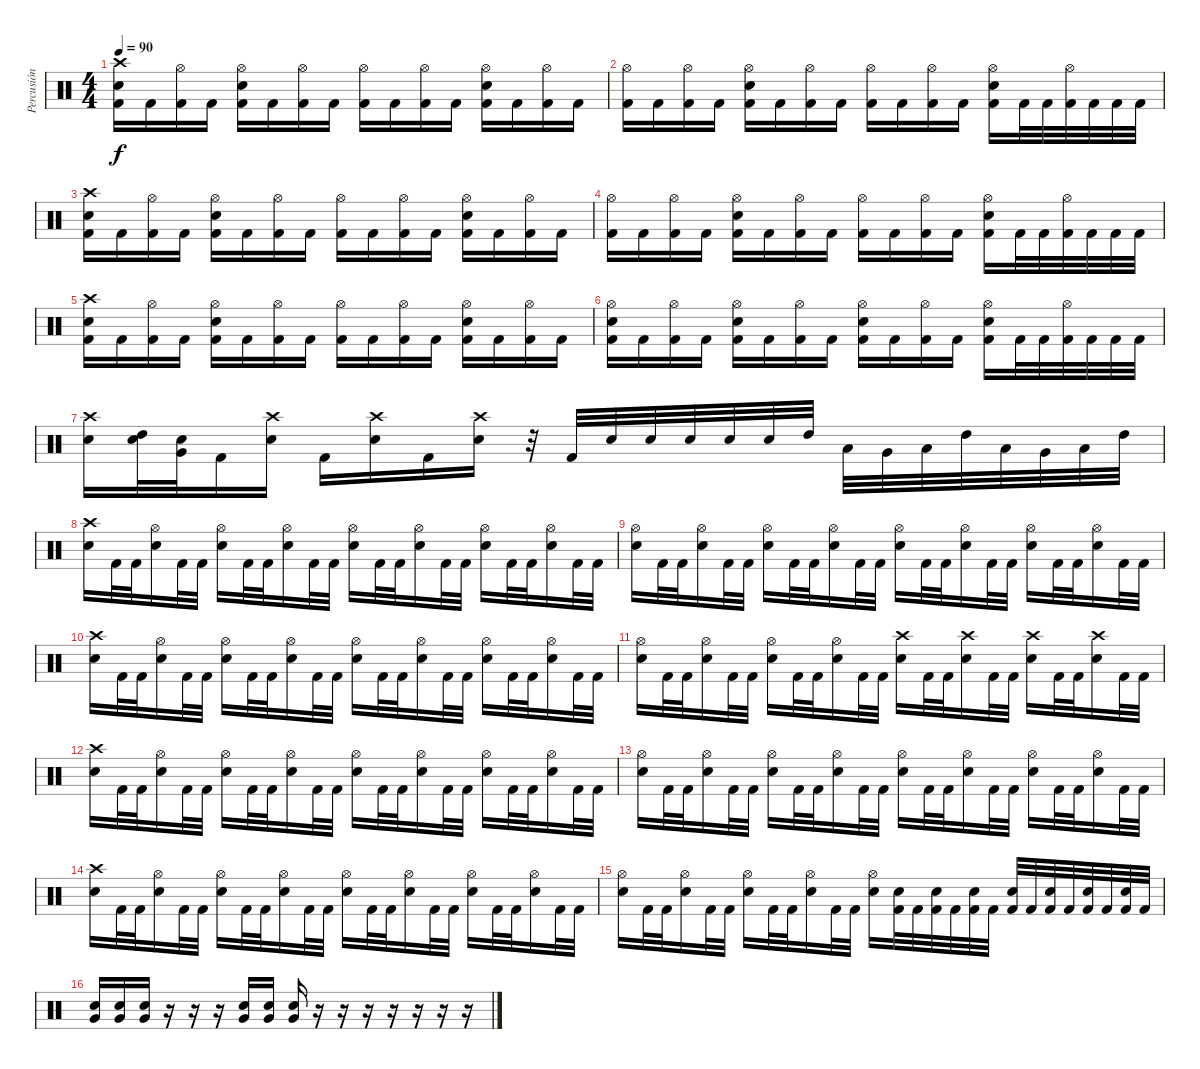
\track ("Percusión" "Percusión") {instrument percussion}
\staff {score}
\articulation defaults
\ts (4 4)
\tempo 90
\clef neutral
\ks c
("Electric Snare (hit)" "Crash high (hit)" "Kick (hit) 2").16{dy f} "Kick (hit) 2".16 ("Hi-Hat (open)" "Kick (hit) 2").16 "Kick (hit) 2".16 ("Hi-Hat (open)" "Electric Snare (hit)" "Kick (hit) 2").16 "Kick (hit) 2".16 ("Hi-Hat (open)" "Kick (hit) 2").16 "Kick (hit) 2".16 ("Hi-Hat (open)" "Kick (hit) 2").16 "Kick (hit) 2".16 ("Hi-Hat (open)" "Kick (hit) 2").16 "Kick (hit) 2".16 ("Hi-Hat (open)" "Electric Snare (hit)" "Kick (hit) 2").16 "Kick (hit) 2".16 ("Hi-Hat (open)" "Kick (hit) 2").16 "Kick (hit) 2".16 |
("Hi-Hat (open)" "Kick (hit) 2").16 "Kick (hit) 2".16 ("Hi-Hat (open)" "Kick (hit) 2").16 "Kick (hit) 2".16 ("Hi-Hat (open)" "Electric Snare (hit)" "Kick (hit) 2").16 "Kick (hit) 2".16 ("Hi-Hat (open)" "Kick (hit) 2").16 "Kick (hit) 2".16 ("Hi-Hat (open)" "Kick (hit) 2").16 "Kick (hit) 2".16 ("Hi-Hat (open)" "Kick (hit) 2").16 "Kick (hit) 2".16 ("Hi-Hat (open)" "Electric Snare (hit)" "Kick (hit) 2").16 "Kick (hit) 2".32 "Kick (hit) 2".32 ("Hi-Hat (open)" "Kick (hit) 2").32 "Kick (hit) 2".32 "Kick (hit) 2".32 "Kick (hit) 2".32 |
("Electric Snare (hit)" "Crash high (hit)" "Kick (hit) 2").16 "Kick (hit) 2".16 ("Hi-Hat (open)" "Kick (hit) 2").16 "Kick (hit) 2".16 ("Hi-Hat (open)" "Electric Snare (hit)" "Kick (hit) 2").16 "Kick (hit) 2".16 ("Hi-Hat (open)" "Kick (hit) 2").16 "Kick (hit) 2".16 ("Hi-Hat (open)" "Kick (hit) 2").16 "Kick (hit) 2".16 ("Hi-Hat (open)" "Kick (hit) 2").16 "Kick (hit) 2".16 ("Hi-Hat (open)" "Electric Snare (hit)" "Kick (hit) 2").16 "Kick (hit) 2".16 ("Hi-Hat (open)" "Kick (hit) 2").16 "Kick (hit) 2".16 |
("Hi-Hat (open)" "Kick (hit) 2").16 "Kick (hit) 2".16 ("Hi-Hat (open)" "Kick (hit) 2").16 "Kick (hit) 2".16 ("Hi-Hat (open)" "Electric Snare (hit)" "Kick (hit) 2").16 "Kick (hit) 2".16 ("Hi-Hat (open)" "Kick (hit) 2").16 "Kick (hit) 2".16 ("Hi-Hat (open)" "Kick (hit) 2").16 "Kick (hit) 2".16 ("Hi-Hat (open)" "Kick (hit) 2").16 "Kick (hit) 2".16 ("Hi-Hat (open)" "Electric Snare (hit)" "Kick (hit) 2").16 "Kick (hit) 2".32 "Kick (hit) 2".32 ("Hi-Hat (open)" "Kick (hit) 2").32 "Kick (hit) 2".32 "Kick (hit) 2".32 "Kick (hit) 2".32 |
("Electric Snare (hit)" "Crash high (hit)" "Kick (hit) 2").16 "Kick (hit) 2".16 ("Hi-Hat (open)" "Kick (hit) 2").16 "Kick (hit) 2".16 ("Hi-Hat (open)" "Electric Snare (hit)" "Kick (hit) 2").16 "Kick (hit) 2".16 ("Hi-Hat (open)" "Kick (hit) 2").16 "Kick (hit) 2".16 ("Hi-Hat (open)" "Kick (hit) 2").16 "Kick (hit) 2".16 ("Hi-Hat (open)" "Kick (hit) 2").16 "Kick (hit) 2".16 ("Hi-Hat (open)" "Electric Snare (hit)" "Kick (hit) 2").16 "Kick (hit) 2".16 ("Hi-Hat (open)" "Kick (hit) 2").16 "Kick (hit) 2".16 |
("Electric Snare (hit)" "Hi-Hat (open)" "Kick (hit) 2").16 "Kick (hit) 2".16 ("Hi-Hat (open)" "Kick (hit) 2").16 "Kick (hit) 2".16 ("Hi-Hat (open)" "Electric Snare (hit)" "Kick (hit) 2").16 "Kick (hit) 2".16 ("Hi-Hat (open)" "Kick (hit) 2").16 "Kick (hit) 2".16 ("Electric Snare (hit)" "Hi-Hat (open)" "Kick (hit) 2").16 "Kick (hit) 2".16 ("Hi-Hat (open)" "Kick (hit) 2").16 "Kick (hit) 2".16 ("Hi-Hat (open)" "Electric Snare (hit)" "Kick (hit) 2").16 "Kick (hit) 2".32 "Kick (hit) 2".32 ("Hi-Hat (open)" "Kick (hit) 2").32 "Kick (hit) 2".32 "Kick (hit) 2".32 "Kick (hit) 2".32 |
("Electric Snare (hit)" "Crash high (hit)").16 ("Electric Snare (hit)" "High Tom (hit)").32 ("Electric Snare (hit)" "Very Low Tom (hit)").32 "Kick (hit) 2".16 ("Electric Snare (hit)" "Crash high (hit)").16 "Kick (hit) 2".16 ("Electric Snare (hit)" "Crash high (hit)").16 "Kick (hit) 2".16 ("Electric Snare (hit)" "Crash high (hit)").16 r.32 "Kick (hit) 2".32 "Electric Snare (hit)".32 "Electric Snare (hit)".32 "Electric Snare (hit)".32 "Electric Snare (hit)".32 "Electric Snare (hit)".32 "High Tom (hit)".32 "Low Tom (hit)".32 "Very Low Tom (hit)".32 "Low Tom (hit)".32 "High Tom (hit)".32 "Low Tom (hit)".32 "Very Low Tom (hit)".32 "Low Tom (hit)".32 "High Tom (hit)".32 |
("Electric Snare (hit)" "Crash high (hit)").16 "Kick (hit) 2".32 "Kick (hit) 2".32 ("Hi-Hat (open)" "Electric Snare (hit)").16 "Kick (hit) 2".32 "Kick (hit) 2".32 ("Hi-Hat (open)" "Electric Snare (hit)").16 "Kick (hit) 2".32 "Kick (hit) 2".32 ("Hi-Hat (open)" "Electric Snare (hit)").16 "Kick (hit) 2".32 "Kick (hit) 2".32 ("Hi-Hat (open)" "Electric Snare (hit)").16 "Kick (hit) 2".32 "Kick (hit) 2".32 ("Hi-Hat (open)" "Electric Snare (hit)").16 "Kick (hit) 2".32 "Kick (hit) 2".32 ("Hi-Hat (open)" "Electric Snare (hit)").16 "Kick (hit) 2".32 "Kick (hit) 2".32 ("Hi-Hat (open)" "Electric Snare (hit)").16 "Kick (hit) 2".32 "Kick (hit) 2".32 |
("Hi-Hat (open)" "Electric Snare (hit)").16 "Kick (hit) 2".32 "Kick (hit) 2".32 ("Hi-Hat (open)" "Electric Snare (hit)").16 "Kick (hit) 2".32 "Kick (hit) 2".32 ("Hi-Hat (open)" "Electric Snare (hit)").16 "Kick (hit) 2".32 "Kick (hit) 2".32 ("Hi-Hat (open)" "Electric Snare (hit)").16 "Kick (hit) 2".32 "Kick (hit) 2".32 ("Hi-Hat (open)" "Electric Snare (hit)").16 "Kick (hit) 2".32 "Kick (hit) 2".32 ("Hi-Hat (open)" "Electric Snare (hit)").16 "Kick (hit) 2".32 "Kick (hit) 2".32 ("Hi-Hat (open)" "Electric Snare (hit)").16 "Kick (hit) 2".32 "Kick (hit) 2".32 ("Hi-Hat (open)" "Electric Snare (hit)").16 "Kick (hit) 2".32 "Kick (hit) 2".32 |
("Electric Snare (hit)" "Crash high (hit)").16 "Kick (hit) 2".32 "Kick (hit) 2".32 ("Hi-Hat (open)" "Electric Snare (hit)").16 "Kick (hit) 2".32 "Kick (hit) 2".32 ("Hi-Hat (open)" "Electric Snare (hit)").16 "Kick (hit) 2".32 "Kick (hit) 2".32 ("Hi-Hat (open)" "Electric Snare (hit)").16 "Kick (hit) 2".32 "Kick (hit) 2".32 ("Hi-Hat (open)" "Electric Snare (hit)").16 "Kick (hit) 2".32 "Kick (hit) 2".32 ("Hi-Hat (open)" "Electric Snare (hit)").16 "Kick (hit) 2".32 "Kick (hit) 2".32 ("Hi-Hat (open)" "Electric Snare (hit)").16 "Kick (hit) 2".32 "Kick (hit) 2".32 ("Hi-Hat (open)" "Electric Snare (hit)").16 "Kick (hit) 2".32 "Kick (hit) 2".32 |
("Hi-Hat (open)" "Electric Snare (hit)").16 "Kick (hit) 2".32 "Kick (hit) 2".32 ("Hi-Hat (open)" "Electric Snare (hit)").16 "Kick (hit) 2".32 "Kick (hit) 2".32 ("Hi-Hat (open)" "Electric Snare (hit)").16 "Kick (hit) 2".32 "Kick (hit) 2".32 ("Hi-Hat (open)" "Electric Snare (hit)").16 "Kick (hit) 2".32 "Kick (hit) 2".32 ("Crash high (hit)" "Electric Snare (hit)").16 "Kick (hit) 2".32 "Kick (hit) 2".32 ("Crash high (hit)" "Electric Snare (hit)").16 "Kick (hit) 2".32 "Kick (hit) 2".32 ("Crash high (hit)" "Electric Snare (hit)").16 "Kick (hit) 2".32 "Kick (hit) 2".32 ("Crash high (hit)" "Electric Snare (hit)").16 "Kick (hit) 2".32 "Kick (hit) 2".32 |
("Electric Snare (hit)" "Crash high (hit)").16 "Kick (hit) 2".32 "Kick (hit) 2".32 ("Hi-Hat (open)" "Electric Snare (hit)").16 "Kick (hit) 2".32 "Kick (hit) 2".32 ("Hi-Hat (open)" "Electric Snare (hit)").16 "Kick (hit) 2".32 "Kick (hit) 2".32 ("Hi-Hat (open)" "Electric Snare (hit)").16 "Kick (hit) 2".32 "Kick (hit) 2".32 ("Hi-Hat (open)" "Electric Snare (hit)").16 "Kick (hit) 2".32 "Kick (hit) 2".32 ("Hi-Hat (open)" "Electric Snare (hit)").16 "Kick (hit) 2".32 "Kick (hit) 2".32 ("Hi-Hat (open)" "Electric Snare (hit)").16 "Kick (hit) 2".32 "Kick (hit) 2".32 ("Hi-Hat (open)" "Electric Snare (hit)").16 "Kick (hit) 2".32 "Kick (hit) 2".32 |
("Hi-Hat (open)" "Electric Snare (hit)").16 "Kick (hit) 2".32 "Kick (hit) 2".32 ("Hi-Hat (open)" "Electric Snare (hit)").16 "Kick (hit) 2".32 "Kick (hit) 2".32 ("Hi-Hat (open)" "Electric Snare (hit)").16 "Kick (hit) 2".32 "Kick (hit) 2".32 ("Hi-Hat (open)" "Electric Snare (hit)").16 "Kick (hit) 2".32 "Kick (hit) 2".32 ("Hi-Hat (open)" "Electric Snare (hit)").16 "Kick (hit) 2".32 "Kick (hit) 2".32 ("Hi-Hat (open)" "Electric Snare (hit)").16 "Kick (hit) 2".32 "Kick (hit) 2".32 ("Hi-Hat (open)" "Electric Snare (hit)").16 "Kick (hit) 2".32 "Kick (hit) 2".32 ("Hi-Hat (open)" "Electric Snare (hit)").16 "Kick (hit) 2".32 "Kick (hit) 2".32 |
("Electric Snare (hit)" "Crash high (hit)").16 "Kick (hit) 2".32 "Kick (hit) 2".32 ("Hi-Hat (open)" "Electric Snare (hit)").16 "Kick (hit) 2".32 "Kick (hit) 2".32 ("Hi-Hat (open)" "Electric Snare (hit)").16 "Kick (hit) 2".32 "Kick (hit) 2".32 ("Hi-Hat (open)" "Electric Snare (hit)").16 "Kick (hit) 2".32 "Kick (hit) 2".32 ("Hi-Hat (open)" "Electric Snare (hit)").16 "Kick (hit) 2".32 "Kick (hit) 2".32 ("Hi-Hat (open)" "Electric Snare (hit)").16 "Kick (hit) 2".32 "Kick (hit) 2".32 ("Hi-Hat (open)" "Electric Snare (hit)").16 "Kick (hit) 2".32 "Kick (hit) 2".32 ("Hi-Hat (open)" "Electric Snare (hit)").16 "Kick (hit) 2".32 "Kick (hit) 2".32 |
("Hi-Hat (open)" "Electric Snare (hit)").16 "Kick (hit) 2".32 "Kick (hit) 2".32 ("Hi-Hat (open)" "Electric Snare (hit)").16 "Kick (hit) 2".32 "Kick (hit) 2".32 ("Hi-Hat (open)" "Electric Snare (hit)").16 "Kick (hit) 2".32 "Kick (hit) 2".32 ("Hi-Hat (open)" "Electric Snare (hit)").16 "Kick (hit) 2".32 "Kick (hit) 2".32 ("Hi-Hat (open)" "Electric Snare (hit)").16 ("Electric Snare (hit)" "Kick (hit) 2").32 "Kick (hit) 2".32 ("Electric Snare (hit)" "Kick (hit) 2").32 "Kick (hit) 2".32 ("Electric Snare (hit)" "Kick (hit) 2").32 "Kick (hit) 2".32 ("Electric Snare (hit)" "Kick (hit) 2").32 "Kick (hit) 2".32 ("Electric Snare (hit)" "Kick (hit) 2").32 "Kick (hit) 2".32 ("Electric Snare (hit)" "Kick (hit) 2").32 "Kick (hit) 2".32 ("Electric Snare (hit)" "Kick (hit) 2").32 "Kick (hit) 2".32 |
("Very Low Tom (hit)" "Electric Snare (hit)").16 ("Very Low Tom (hit)" "Electric Snare (hit)").16 ("Very Low Tom (hit)" "Electric Snare (hit)").16 r.16 r.16 r.16 ("Very Low Tom (hit)" "Electric Snare (hit)").16 ("Very Low Tom (hit)" "Electric Snare (hit)").16 ("Very Low Tom (hit)" "Electric Snare (hit)").16 r.16 r.16 r.16 r.16 r.16 r.16 r.16
